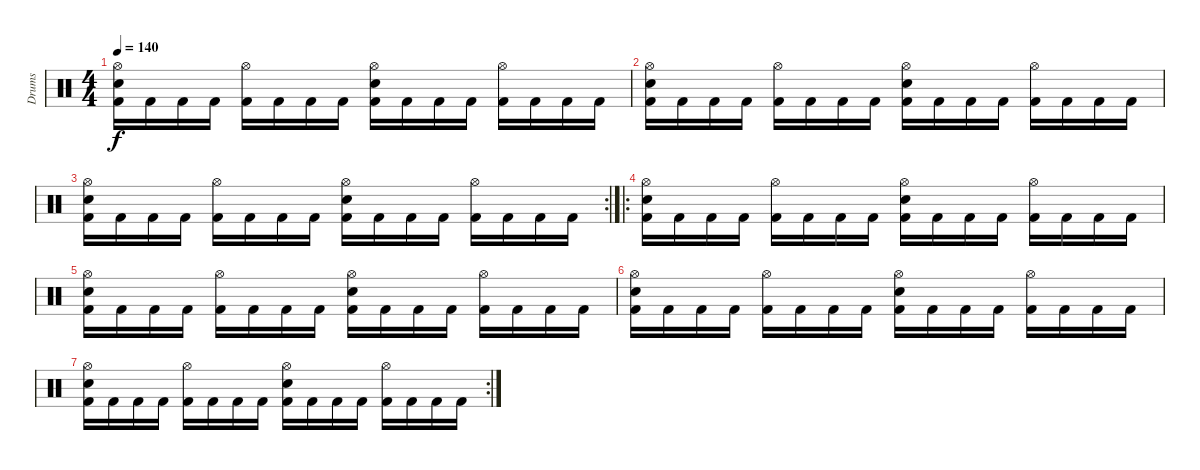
\track ("Drums" "Drums") {instrument percussion}
\staff {score}
\articulation defaults
\ts (4 4)
\tempo 140
\clef neutral
\ks c
("Kick (hit) 2" "Electric Snare (hit)" "Hi-Hat (open)").16{dy f} "Kick (hit) 2".16 "Kick (hit) 2".16 "Kick (hit) 2".16 ("Kick (hit) 2" "Hi-Hat (open)").16 "Kick (hit) 2".16 "Kick (hit) 2".16 "Kick (hit) 2".16 ("Kick (hit) 2" "Electric Snare (hit)" "Hi-Hat (open)").16 "Kick (hit) 2".16 "Kick (hit) 2".16 "Kick (hit) 2".16 ("Kick (hit) 2" "Hi-Hat (open)").16 "Kick (hit) 2".16 "Kick (hit) 2".16 "Kick (hit) 2".16 |
("Kick (hit) 2" "Electric Snare (hit)" "Hi-Hat (open)").16 "Kick (hit) 2".16 "Kick (hit) 2".16 "Kick (hit) 2".16 ("Kick (hit) 2" "Hi-Hat (open)").16 "Kick (hit) 2".16 "Kick (hit) 2".16 "Kick (hit) 2".16 ("Kick (hit) 2" "Electric Snare (hit)" "Hi-Hat (open)").16 "Kick (hit) 2".16 "Kick (hit) 2".16 "Kick (hit) 2".16 ("Kick (hit) 2" "Hi-Hat (open)").16 "Kick (hit) 2".16 "Kick (hit) 2".16 "Kick (hit) 2".16 |
\rc 2
("Kick (hit) 2" "Electric Snare (hit)" "Hi-Hat (open)").16 "Kick (hit) 2".16 "Kick (hit) 2".16 "Kick (hit) 2".16 ("Kick (hit) 2" "Hi-Hat (open)").16 "Kick (hit) 2".16 "Kick (hit) 2".16 "Kick (hit) 2".16 ("Kick (hit) 2" "Electric Snare (hit)" "Hi-Hat (open)").16 "Kick (hit) 2".16 "Kick (hit) 2".16 "Kick (hit) 2".16 ("Kick (hit) 2" "Hi-Hat (open)").16 "Kick (hit) 2".16 "Kick (hit) 2".16 "Kick (hit) 2".16 |
\ro
("Kick (hit) 2" "Electric Snare (hit)" "Hi-Hat (open)").16 "Kick (hit) 2".16 "Kick (hit) 2".16 "Kick (hit) 2".16 ("Kick (hit) 2" "Hi-Hat (open)").16 "Kick (hit) 2".16 "Kick (hit) 2".16 "Kick (hit) 2".16 ("Kick (hit) 2" "Electric Snare (hit)" "Hi-Hat (open)").16 "Kick (hit) 2".16 "Kick (hit) 2".16 "Kick (hit) 2".16 ("Kick (hit) 2" "Hi-Hat (open)").16 "Kick (hit) 2".16 "Kick (hit) 2".16 "Kick (hit) 2".16 |
("Kick (hit) 2" "Electric Snare (hit)" "Hi-Hat (open)").16 "Kick (hit) 2".16 "Kick (hit) 2".16 "Kick (hit) 2".16 ("Kick (hit) 2" "Hi-Hat (open)").16 "Kick (hit) 2".16 "Kick (hit) 2".16 "Kick (hit) 2".16 ("Kick (hit) 2" "Electric Snare (hit)" "Hi-Hat (open)").16 "Kick (hit) 2".16 "Kick (hit) 2".16 "Kick (hit) 2".16 ("Kick (hit) 2" "Hi-Hat (open)").16 "Kick (hit) 2".16 "Kick (hit) 2".16 "Kick (hit) 2".16 |
("Kick (hit) 2" "Electric Snare (hit)" "Hi-Hat (open)").16 "Kick (hit) 2".16 "Kick (hit) 2".16 "Kick (hit) 2".16 ("Kick (hit) 2" "Hi-Hat (open)").16 "Kick (hit) 2".16 "Kick (hit) 2".16 "Kick (hit) 2".16 ("Kick (hit) 2" "Electric Snare (hit)" "Hi-Hat (open)").16 "Kick (hit) 2".16 "Kick (hit) 2".16 "Kick (hit) 2".16 ("Kick (hit) 2" "Hi-Hat (open)").16 "Kick (hit) 2".16 "Kick (hit) 2".16 "Kick (hit) 2".16 |
\rc 2
("Kick (hit) 2" "Electric Snare (hit)" "Hi-Hat (open)").16 "Kick (hit) 2".16 "Kick (hit) 2".16 "Kick (hit) 2".16 ("Kick (hit) 2" "Hi-Hat (open)").16 "Kick (hit) 2".16 "Kick (hit) 2".16 "Kick (hit) 2".16 ("Kick (hit) 2" "Electric Snare (hit)" "Hi-Hat (open)").16 "Kick (hit) 2".16 "Kick (hit) 2".16 "Kick (hit) 2".16 ("Kick (hit) 2" "Hi-Hat (open)").16 "Kick (hit) 2".16 "Kick (hit) 2".16 "Kick (hit) 2".16
